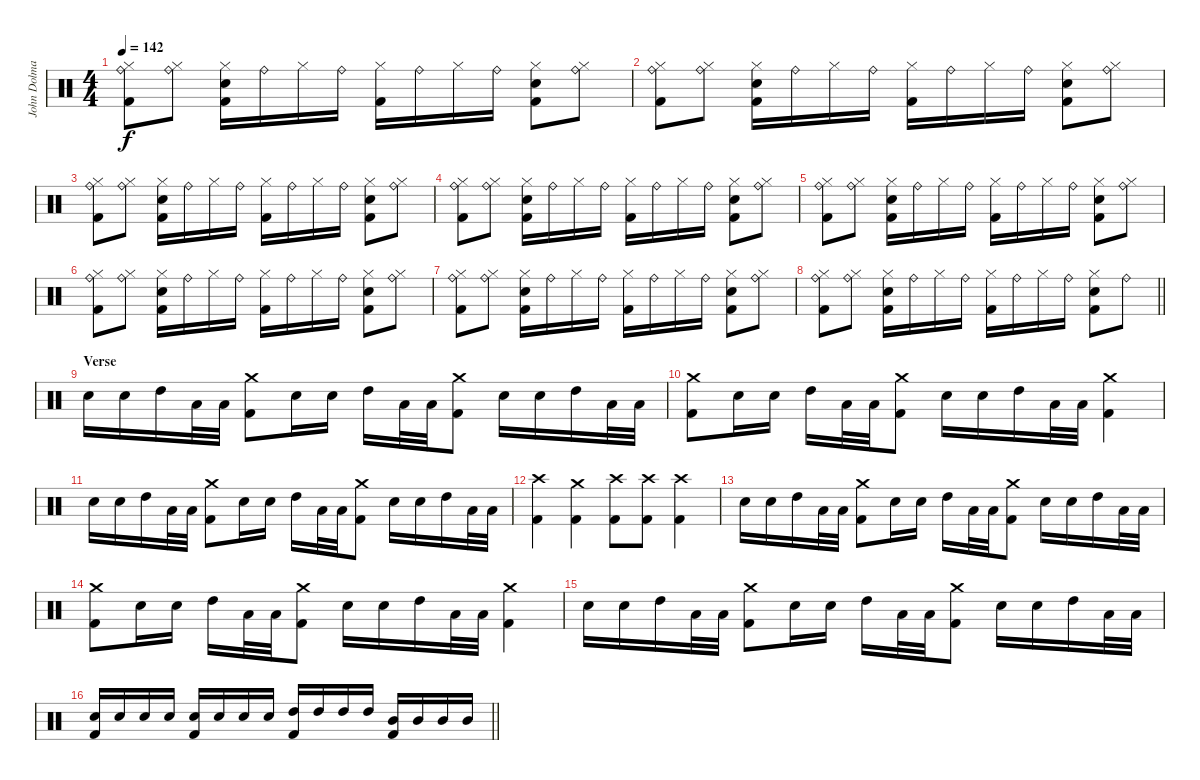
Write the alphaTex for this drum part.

\track ("John Dolmayan" "John Dolma") {instrument percussion}
\staff {score}
\articulation defaults
\ts (4 4)
\tempo 142
\clef neutral
\ks c
("Ride (bell)" "Hi-Hat (closed)" "Kick (hit) 2").8{dy f} ("Ride (bell)" "Hi-Hat (closed)").8 ("Hi-Hat (closed)" "Electric Snare (hit)" "Kick (hit) 2").16 "Ride (bell)".16 "Hi-Hat (closed)".16 "Ride (bell)".16 ("Hi-Hat (closed)" "Kick (hit) 2").16 "Ride (bell)".16 "Hi-Hat (closed)".16 "Ride (bell)".16 ("Hi-Hat (closed)" "Electric Snare (hit)" "Kick (hit) 2").8 ("Ride (bell)" "Hi-Hat (closed)").8 |
("Ride (bell)" "Hi-Hat (closed)" "Kick (hit) 2").8 ("Ride (bell)" "Hi-Hat (closed)").8 ("Hi-Hat (closed)" "Electric Snare (hit)" "Kick (hit) 2").16 "Ride (bell)".16 "Hi-Hat (closed)".16 "Ride (bell)".16 ("Hi-Hat (closed)" "Kick (hit) 2").16 "Ride (bell)".16 "Hi-Hat (closed)".16 "Ride (bell)".16 ("Hi-Hat (closed)" "Electric Snare (hit)" "Kick (hit) 2").8 ("Ride (bell)" "Hi-Hat (closed)").8 |
("Ride (bell)" "Hi-Hat (closed)" "Kick (hit) 2").8 ("Ride (bell)" "Hi-Hat (closed)").8 ("Hi-Hat (closed)" "Electric Snare (hit)" "Kick (hit) 2").16 "Ride (bell)".16 "Hi-Hat (closed)".16 "Ride (bell)".16 ("Hi-Hat (closed)" "Kick (hit) 2").16 "Ride (bell)".16 "Hi-Hat (closed)".16 "Ride (bell)".16 ("Hi-Hat (closed)" "Electric Snare (hit)" "Kick (hit) 2").8 ("Ride (bell)" "Hi-Hat (closed)").8 |
("Ride (bell)" "Hi-Hat (closed)" "Kick (hit) 2").8 ("Ride (bell)" "Hi-Hat (closed)").8 ("Hi-Hat (closed)" "Electric Snare (hit)" "Kick (hit) 2").16 "Ride (bell)".16 "Hi-Hat (closed)".16 "Ride (bell)".16 ("Hi-Hat (closed)" "Kick (hit) 2").16 "Ride (bell)".16 "Hi-Hat (closed)".16 "Ride (bell)".16 ("Hi-Hat (closed)" "Electric Snare (hit)" "Kick (hit) 2").8 ("Ride (bell)" "Hi-Hat (closed)").8 |
("Ride (bell)" "Hi-Hat (closed)" "Kick (hit) 2").8 ("Ride (bell)" "Hi-Hat (closed)").8 ("Hi-Hat (closed)" "Electric Snare (hit)" "Kick (hit) 2").16 "Ride (bell)".16 "Hi-Hat (closed)".16 "Ride (bell)".16 ("Hi-Hat (closed)" "Kick (hit) 2").16 "Ride (bell)".16 "Hi-Hat (closed)".16 "Ride (bell)".16 ("Hi-Hat (closed)" "Electric Snare (hit)" "Kick (hit) 2").8 ("Ride (bell)" "Hi-Hat (closed)").8 |
("Ride (bell)" "Hi-Hat (closed)" "Kick (hit) 2").8 ("Ride (bell)" "Hi-Hat (closed)").8 ("Hi-Hat (closed)" "Electric Snare (hit)" "Kick (hit) 2").16 "Ride (bell)".16 "Hi-Hat (closed)".16 "Ride (bell)".16 ("Hi-Hat (closed)" "Kick (hit) 2").16 "Ride (bell)".16 "Hi-Hat (closed)".16 "Ride (bell)".16 ("Hi-Hat (closed)" "Electric Snare (hit)" "Kick (hit) 2").8 ("Ride (bell)" "Hi-Hat (closed)").8 |
("Ride (bell)" "Hi-Hat (closed)" "Kick (hit) 2").8 ("Ride (bell)" "Hi-Hat (closed)").8 ("Hi-Hat (closed)" "Electric Snare (hit)" "Kick (hit) 2").16 "Ride (bell)".16 "Hi-Hat (closed)".16 "Ride (bell)".16 ("Hi-Hat (closed)" "Kick (hit) 2").16 "Ride (bell)".16 "Hi-Hat (closed)".16 "Ride (bell)".16 ("Hi-Hat (closed)" "Electric Snare (hit)" "Kick (hit) 2").8 ("Ride (bell)" "Hi-Hat (closed)").8 |
\barLineRight lightlight
("Ride (bell)" "Hi-Hat (closed)" "Kick (hit) 2").8 ("Ride (bell)" "Hi-Hat (closed)").8 ("Hi-Hat (closed)" "Electric Snare (hit)" "Kick (hit) 2").16 "Ride (bell)".16 "Hi-Hat (closed)".16 "Ride (bell)".16 ("Hi-Hat (closed)" "Kick (hit) 2").16 "Ride (bell)".16 "Hi-Hat (closed)".16 "Ride (bell)".16 ("Hi-Hat (closed)" "Electric Snare (hit)" "Kick (hit) 2").8 "Ride (bell)".8 |
\section ("" "Verse")
"Electric Snare (hit)".16 "Electric Snare (hit)".16 "High Tom (hit)".16 "Low Floor Tom (hit)".32 "Low Floor Tom (hit)".32 ("Crash medium (hit)" "Kick (hit) 2").8 "Electric Snare (hit)".16 "Electric Snare (hit)".16 "High Tom (hit)".16 "Low Floor Tom (hit)".32 "Low Floor Tom (hit)".32 ("Crash medium (hit)" "Kick (hit) 2").8 "Electric Snare (hit)".16 "Electric Snare (hit)".16 "High Tom (hit)".16 "Low Floor Tom (hit)".32 "Low Floor Tom (hit)".32 |
("Crash medium (hit)" "Kick (hit) 2").8 "Electric Snare (hit)".16 "Electric Snare (hit)".16 "High Tom (hit)".16 "Low Floor Tom (hit)".32 "Low Floor Tom (hit)".32 ("Crash medium (hit)" "Kick (hit) 2").8 "Electric Snare (hit)".16 "Electric Snare (hit)".16 "High Tom (hit)".16 "Low Floor Tom (hit)".32 "Low Floor Tom (hit)".32 ("Crash medium (hit)" "Kick (hit) 2").4 |
"Electric Snare (hit)".16 "Electric Snare (hit)".16 "High Tom (hit)".16 "Low Floor Tom (hit)".32 "Low Floor Tom (hit)".32 ("Crash medium (hit)" "Kick (hit) 2").8 "Electric Snare (hit)".16 "Electric Snare (hit)".16 "High Tom (hit)".16 "Low Floor Tom (hit)".32 "Low Floor Tom (hit)".32 ("Crash medium (hit)" "Kick (hit) 2").8 "Electric Snare (hit)".16 "Electric Snare (hit)".16 "High Tom (hit)".16 "Low Floor Tom (hit)".32 "Low Floor Tom (hit)".32 |
("Crash high (hit)" "Kick (hit) 2").4 ("Crash medium (hit)" "Kick (hit) 2").4 ("Crash high (hit)" "Kick (hit) 2").8 ("Crash high (hit)" "Kick (hit) 2").8 ("Crash high (hit)" "Kick (hit) 2").4 |
"Electric Snare (hit)".16 "Electric Snare (hit)".16 "High Tom (hit)".16 "Low Floor Tom (hit)".32 "Low Floor Tom (hit)".32 ("Crash medium (hit)" "Kick (hit) 2").8 "Electric Snare (hit)".16 "Electric Snare (hit)".16 "High Tom (hit)".16 "Low Floor Tom (hit)".32 "Low Floor Tom (hit)".32 ("Crash medium (hit)" "Kick (hit) 2").8 "Electric Snare (hit)".16 "Electric Snare (hit)".16 "High Tom (hit)".16 "Low Floor Tom (hit)".32 "Low Floor Tom (hit)".32 |
("Crash medium (hit)" "Kick (hit) 2").8 "Electric Snare (hit)".16 "Electric Snare (hit)".16 "High Tom (hit)".16 "Low Floor Tom (hit)".32 "Low Floor Tom (hit)".32 ("Crash medium (hit)" "Kick (hit) 2").8 "Electric Snare (hit)".16 "Electric Snare (hit)".16 "High Tom (hit)".16 "Low Floor Tom (hit)".32 "Low Floor Tom (hit)".32 ("Crash medium (hit)" "Kick (hit) 2").4 |
"Electric Snare (hit)".16 "Electric Snare (hit)".16 "High Tom (hit)".16 "Low Floor Tom (hit)".32 "Low Floor Tom (hit)".32 ("Crash medium (hit)" "Kick (hit) 2").8 "Electric Snare (hit)".16 "Electric Snare (hit)".16 "High Tom (hit)".16 "Low Floor Tom (hit)".32 "Low Floor Tom (hit)".32 ("Crash medium (hit)" "Kick (hit) 2").8 "Electric Snare (hit)".16 "Electric Snare (hit)".16 "High Tom (hit)".16 "Low Floor Tom (hit)".32 "Low Floor Tom (hit)".32 |
\barLineRight lightlight
("Electric Snare (hit)" "Kick (hit) 2").16 "Electric Snare (hit)".16 "Electric Snare (hit)".16 "Electric Snare (hit)".16 ("Electric Snare (hit)" "Kick (hit) 2").16 "Electric Snare (hit)".16 "Electric Snare (hit)".16 "Electric Snare (hit)".16 ("High Tom (hit)" "Kick (hit) 2").16 "High Tom (hit)".16 "High Tom (hit)".16 "High Tom (hit)".16 ("Mid Tom (hit)" "Kick (hit) 2").16 "Mid Tom (hit)".16 "Mid Tom (hit)".16 "Mid Tom (hit)".16
